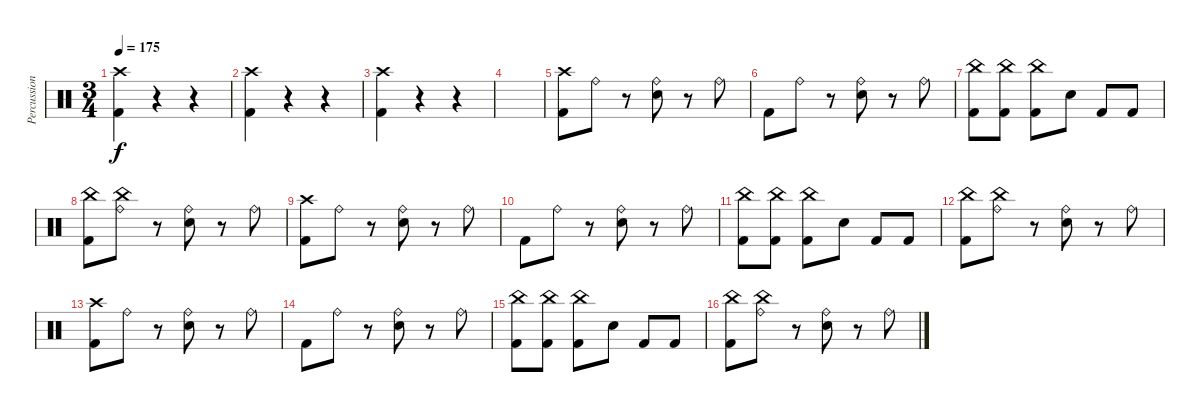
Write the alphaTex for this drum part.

\track ("Percussion" "Percussion") {instrument percussion}
\staff {score}
\articulation defaults
\ts (3 4)
\tempo 175
\clef neutral
\ks c
("Crash high (hit)" "Kick (hit) 2").4{dy f} r.4 r.4 |
("Crash high (hit)" "Kick (hit) 2").4 r.4 r.4 |
("Crash high (hit)" "Kick (hit) 2").4 r.4 r.4 |
|
("Crash high (hit)" "Kick (hit) 2").8 "Ride (bell)".8 r.8 ("Ride (bell)" "Electric Snare (hit)").8 r.8 "Ride (bell)".8 |
"Kick (hit) 2".8 "Ride (bell)".8 r.8 ("Ride (bell)" "Electric Snare (hit)").8 r.8 "Ride (bell)".8 |
("China (hit)" "Kick (hit) 2").8 ("China (hit)" "Kick (hit) 2").8 ("China (hit)" "Kick (hit) 2").8 "Electric Snare (hit)".8 "Kick (hit) 2".8 "Kick (hit) 2".8 |
("China (hit)" "Kick (hit) 2").8 ("China (hit)" "Ride (bell)").8 r.8 ("Ride (bell)" "Electric Snare (hit)").8 r.8 "Ride (bell)".8 |
("Crash high (hit)" "Kick (hit) 2").8 "Ride (bell)".8 r.8 ("Ride (bell)" "Electric Snare (hit)").8 r.8 "Ride (bell)".8 |
"Kick (hit) 2".8 "Ride (bell)".8 r.8 ("Ride (bell)" "Electric Snare (hit)").8 r.8 "Ride (bell)".8 |
("China (hit)" "Kick (hit) 2").8 ("China (hit)" "Kick (hit) 2").8 ("China (hit)" "Kick (hit) 2").8 "Electric Snare (hit)".8 "Kick (hit) 2".8 "Kick (hit) 2".8 |
("China (hit)" "Kick (hit) 2").8 ("China (hit)" "Ride (bell)").8 r.8 ("Ride (bell)" "Electric Snare (hit)").8 r.8 "Ride (bell)".8 |
("Crash high (hit)" "Kick (hit) 2").8 "Ride (bell)".8 r.8 ("Ride (bell)" "Electric Snare (hit)").8 r.8 "Ride (bell)".8 |
"Kick (hit) 2".8 "Ride (bell)".8 r.8 ("Ride (bell)" "Electric Snare (hit)").8 r.8 "Ride (bell)".8 |
("China (hit)" "Kick (hit) 2").8 ("China (hit)" "Kick (hit) 2").8 ("China (hit)" "Kick (hit) 2").8 "Electric Snare (hit)".8 "Kick (hit) 2".8 "Kick (hit) 2".8 |
("China (hit)" "Kick (hit) 2").8 ("China (hit)" "Ride (bell)").8 r.8 ("Ride (bell)" "Electric Snare (hit)").8 r.8 "Ride (bell)".8
